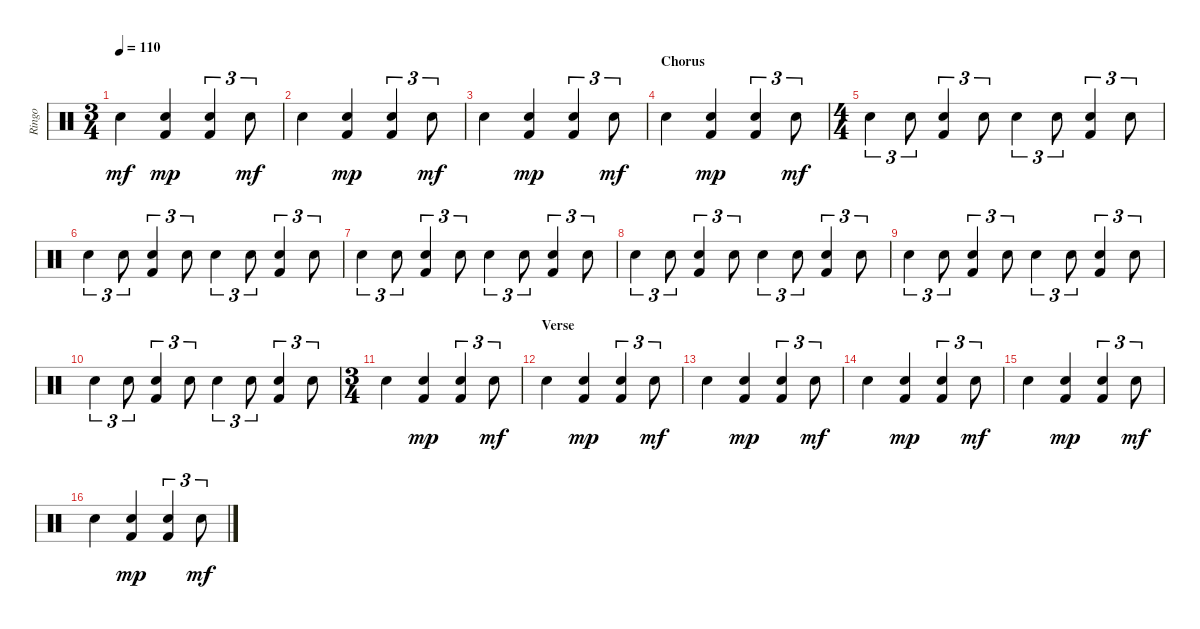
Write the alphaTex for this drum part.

\track ("Ringo" "Ringo") {instrument percussion}
\staff {score}
\articulation defaults
\ts (3 4)
\tempo 110
\clef neutral
\ks c "Snare (hit) 2".4{dy mf}
("Snare (hit) 2" "Kick (hit) 2").4{dy mp} ("Snare (hit) 2" "Kick (hit) 2").4{tu (3 2)} "Snare (hit) 2".8{tu (3 2) dy mf} |
"Snare (hit) 2".4 ("Snare (hit) 2" "Kick (hit) 2").4{dy mp} ("Snare (hit) 2" "Kick (hit) 2").4{tu (3 2)} "Snare (hit) 2".8{tu (3 2) dy mf} |
"Snare (hit) 2".4 ("Snare (hit) 2" "Kick (hit) 2").4{dy mp} ("Snare (hit) 2" "Kick (hit) 2").4{tu (3 2)} "Snare (hit) 2".8{tu (3 2) dy mf} |
\section ("" "Chorus")
"Snare (hit) 2".4 ("Snare (hit) 2" "Kick (hit) 2").4{dy mp} ("Snare (hit) 2" "Kick (hit) 2").4{tu (3 2)} "Snare (hit) 2".8{tu (3 2) dy mf} |
\ts (4 4)
"Snare (hit) 2".4{tu (3 2)} "Snare (hit) 2".8{tu (3 2)} ("Snare (hit) 2" "Kick (hit) 2").4{tu (3 2)} "Snare (hit) 2".8{tu (3 2)} "Snare (hit) 2".4{tu (3 2)} "Snare (hit) 2".8{tu (3 2)} ("Snare (hit) 2" "Kick (hit) 2").4{tu (3 2)} "Snare (hit) 2".8{tu (3 2)} |
"Snare (hit) 2".4{tu (3 2)} "Snare (hit) 2".8{tu (3 2)} ("Snare (hit) 2" "Kick (hit) 2").4{tu (3 2)} "Snare (hit) 2".8{tu (3 2)} "Snare (hit) 2".4{tu (3 2)} "Snare (hit) 2".8{tu (3 2)} ("Snare (hit) 2" "Kick (hit) 2").4{tu (3 2)} "Snare (hit) 2".8{tu (3 2)} |
"Snare (hit) 2".4{tu (3 2)} "Snare (hit) 2".8{tu (3 2)} ("Snare (hit) 2" "Kick (hit) 2").4{tu (3 2)} "Snare (hit) 2".8{tu (3 2)} "Snare (hit) 2".4{tu (3 2)} "Snare (hit) 2".8{tu (3 2)} ("Snare (hit) 2" "Kick (hit) 2").4{tu (3 2)} "Snare (hit) 2".8{tu (3 2)} |
"Snare (hit) 2".4{tu (3 2)} "Snare (hit) 2".8{tu (3 2)} ("Snare (hit) 2" "Kick (hit) 2").4{tu (3 2)} "Snare (hit) 2".8{tu (3 2)} "Snare (hit) 2".4{tu (3 2)} "Snare (hit) 2".8{tu (3 2)} ("Snare (hit) 2" "Kick (hit) 2").4{tu (3 2)} "Snare (hit) 2".8{tu (3 2)} |
"Snare (hit) 2".4{tu (3 2)} "Snare (hit) 2".8{tu (3 2)} ("Snare (hit) 2" "Kick (hit) 2").4{tu (3 2)} "Snare (hit) 2".8{tu (3 2)} "Snare (hit) 2".4{tu (3 2)} "Snare (hit) 2".8{tu (3 2)} ("Snare (hit) 2" "Kick (hit) 2").4{tu (3 2)} "Snare (hit) 2".8{tu (3 2)} |
"Snare (hit) 2".4{tu (3 2)} "Snare (hit) 2".8{tu (3 2)} ("Snare (hit) 2" "Kick (hit) 2").4{tu (3 2)} "Snare (hit) 2".8{tu (3 2)} "Snare (hit) 2".4{tu (3 2)} "Snare (hit) 2".8{tu (3 2)} ("Snare (hit) 2" "Kick (hit) 2").4{tu (3 2)} "Snare (hit) 2".8{tu (3 2)} |
\ts (3 4)
"Snare (hit) 2".4 ("Snare (hit) 2" "Kick (hit) 2").4{dy mp} ("Snare (hit) 2" "Kick (hit) 2").4{tu (3 2)} "Snare (hit) 2".8{tu (3 2) dy mf} |
\section ("" "Verse")
"Snare (hit) 2".4 ("Snare (hit) 2" "Kick (hit) 2").4{dy mp} ("Snare (hit) 2" "Kick (hit) 2").4{tu (3 2)} "Snare (hit) 2".8{tu (3 2) dy mf} |
"Snare (hit) 2".4 ("Snare (hit) 2" "Kick (hit) 2").4{dy mp} ("Snare (hit) 2" "Kick (hit) 2").4{tu (3 2)} "Snare (hit) 2".8{tu (3 2) dy mf} |
"Snare (hit) 2".4 ("Snare (hit) 2" "Kick (hit) 2").4{dy mp} ("Snare (hit) 2" "Kick (hit) 2").4{tu (3 2)} "Snare (hit) 2".8{tu (3 2) dy mf} |
"Snare (hit) 2".4 ("Snare (hit) 2" "Kick (hit) 2").4{dy mp} ("Snare (hit) 2" "Kick (hit) 2").4{tu (3 2)} "Snare (hit) 2".8{tu (3 2) dy mf} |
"Snare (hit) 2".4 ("Snare (hit) 2" "Kick (hit) 2").4{dy mp} ("Snare (hit) 2" "Kick (hit) 2").4{tu (3 2)} "Snare (hit) 2".8{tu (3 2) dy mf}
